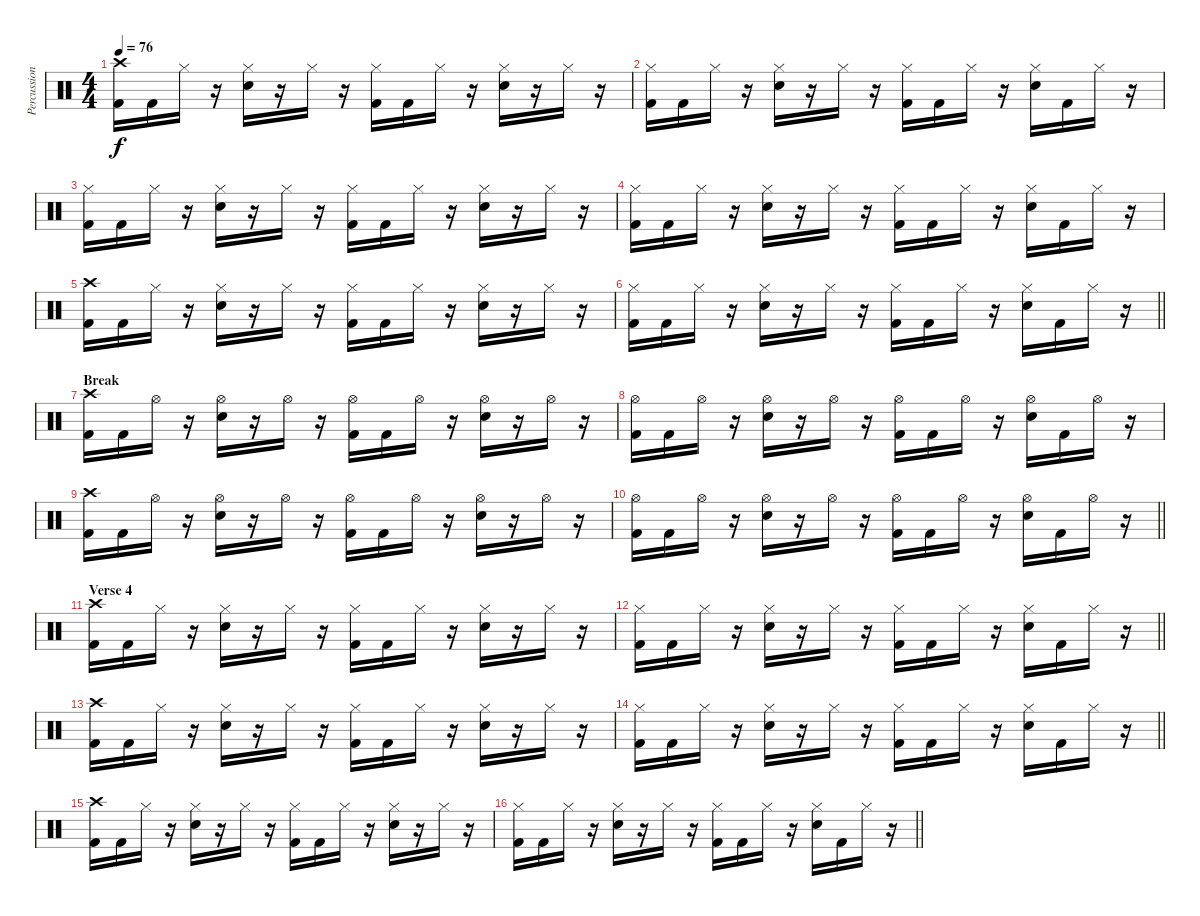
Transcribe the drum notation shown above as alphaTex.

\track ("Percussion" "Percussion") {instrument percussion}
\staff {score}
\articulation defaults
\ts (4 4)
\tempo 76
\clef neutral
\ks c
("Crash high (hit)" "Kick (hit) 2").16{dy f} "Kick (hit) 2".16 "Hi-Hat (closed)".16 r.16 ("Hi-Hat (closed)" "Electric Snare (hit)").16 r.16 "Hi-Hat (closed)".16 r.16 ("Hi-Hat (closed)" "Kick (hit) 2").16 "Kick (hit) 2".16 "Hi-Hat (closed)".16 r.16 ("Hi-Hat (closed)" "Electric Snare (hit)").16 r.16 "Hi-Hat (closed)".16 r.16 |
("Hi-Hat (closed)" "Kick (hit) 2").16 "Kick (hit) 2".16 "Hi-Hat (closed)".16 r.16 ("Hi-Hat (closed)" "Electric Snare (hit)").16 r.16 "Hi-Hat (closed)".16 r.16 ("Hi-Hat (closed)" "Kick (hit) 2").16 "Kick (hit) 2".16 "Hi-Hat (closed)".16 r.16 ("Hi-Hat (closed)" "Electric Snare (hit)").16 "Kick (hit) 2".16 "Hi-Hat (closed)".16 r.16 |
("Hi-Hat (closed)" "Kick (hit) 2").16 "Kick (hit) 2".16 "Hi-Hat (closed)".16 r.16 ("Hi-Hat (closed)" "Electric Snare (hit)").16 r.16 "Hi-Hat (closed)".16 r.16 ("Hi-Hat (closed)" "Kick (hit) 2").16 "Kick (hit) 2".16 "Hi-Hat (closed)".16 r.16 ("Hi-Hat (closed)" "Electric Snare (hit)").16 r.16 "Hi-Hat (closed)".16 r.16 |
("Hi-Hat (closed)" "Kick (hit) 2").16 "Kick (hit) 2".16 "Hi-Hat (closed)".16 r.16 ("Hi-Hat (closed)" "Electric Snare (hit)").16 r.16 "Hi-Hat (closed)".16 r.16 ("Hi-Hat (closed)" "Kick (hit) 2").16 "Kick (hit) 2".16 "Hi-Hat (closed)".16 r.16 ("Hi-Hat (closed)" "Electric Snare (hit)").16 "Kick (hit) 2".16 "Hi-Hat (closed)".16 r.16 |
("Crash high (hit)" "Kick (hit) 2").16 "Kick (hit) 2".16 "Hi-Hat (closed)".16 r.16 ("Hi-Hat (closed)" "Electric Snare (hit)").16 r.16 "Hi-Hat (closed)".16 r.16 ("Hi-Hat (closed)" "Kick (hit) 2").16 "Kick (hit) 2".16 "Hi-Hat (closed)".16 r.16 ("Hi-Hat (closed)" "Electric Snare (hit)").16 r.16 "Hi-Hat (closed)".16 r.16 |
\barLineRight lightlight
("Hi-Hat (closed)" "Kick (hit) 2").16 "Kick (hit) 2".16 "Hi-Hat (closed)".16 r.16 ("Hi-Hat (closed)" "Electric Snare (hit)").16 r.16 "Hi-Hat (closed)".16 r.16 ("Hi-Hat (closed)" "Kick (hit) 2").16 "Kick (hit) 2".16 "Hi-Hat (closed)".16 r.16 ("Hi-Hat (closed)" "Electric Snare (hit)").16 "Kick (hit) 2".16 "Hi-Hat (closed)".16 r.16 |
\section ("" "Break")
("Crash high (hit)" "Kick (hit) 2").16 "Kick (hit) 2".16 "Hi-Hat (open)".16 r.16 ("Hi-Hat (open)" "Electric Snare (hit)").16 r.16 "Hi-Hat (open)".16 r.16 ("Hi-Hat (open)" "Kick (hit) 2").16 "Kick (hit) 2".16 "Hi-Hat (open)".16 r.16 ("Hi-Hat (open)" "Electric Snare (hit)").16 r.16 "Hi-Hat (open)".16 r.16 |
("Hi-Hat (open)" "Kick (hit) 2").16 "Kick (hit) 2".16 "Hi-Hat (open)".16 r.16 ("Hi-Hat (open)" "Electric Snare (hit)").16 r.16 "Hi-Hat (open)".16 r.16 ("Hi-Hat (open)" "Kick (hit) 2").16 "Kick (hit) 2".16 "Hi-Hat (open)".16 r.16 ("Hi-Hat (open)" "Electric Snare (hit)").16 "Kick (hit) 2".16 "Hi-Hat (open)".16 r.16 |
("Crash high (hit)" "Kick (hit) 2").16 "Kick (hit) 2".16 "Hi-Hat (open)".16 r.16 ("Hi-Hat (open)" "Electric Snare (hit)").16 r.16 "Hi-Hat (open)".16 r.16 ("Hi-Hat (open)" "Kick (hit) 2").16 "Kick (hit) 2".16 "Hi-Hat (open)".16 r.16 ("Hi-Hat (open)" "Electric Snare (hit)").16 r.16 "Hi-Hat (open)".16 r.16 |
\barLineRight lightlight
("Hi-Hat (open)" "Kick (hit) 2").16 "Kick (hit) 2".16 "Hi-Hat (open)".16 r.16 ("Hi-Hat (open)" "Electric Snare (hit)").16 r.16 "Hi-Hat (open)".16 r.16 ("Hi-Hat (open)" "Kick (hit) 2").16 "Kick (hit) 2".16 "Hi-Hat (open)".16 r.16 ("Hi-Hat (open)" "Electric Snare (hit)").16 "Kick (hit) 2".16 "Hi-Hat (open)".16 r.16 |
\section ("" "Verse 4")
("Crash high (hit)" "Kick (hit) 2").16 "Kick (hit) 2".16 "Hi-Hat (closed)".16 r.16 ("Hi-Hat (closed)" "Electric Snare (hit)").16 r.16 "Hi-Hat (closed)".16 r.16 ("Hi-Hat (closed)" "Kick (hit) 2").16 "Kick (hit) 2".16 "Hi-Hat (closed)".16 r.16 ("Hi-Hat (closed)" "Electric Snare (hit)").16 r.16 "Hi-Hat (closed)".16 r.16 |
\barLineRight lightlight
("Hi-Hat (closed)" "Kick (hit) 2").16 "Kick (hit) 2".16 "Hi-Hat (closed)".16 r.16 ("Hi-Hat (closed)" "Electric Snare (hit)").16 r.16 "Hi-Hat (closed)".16 r.16 ("Hi-Hat (closed)" "Kick (hit) 2").16 "Kick (hit) 2".16 "Hi-Hat (closed)".16 r.16 ("Hi-Hat (closed)" "Electric Snare (hit)").16 "Kick (hit) 2".16 "Hi-Hat (closed)".16 r.16 |
("Crash high (hit)" "Kick (hit) 2").16 "Kick (hit) 2".16 "Hi-Hat (closed)".16 r.16 ("Hi-Hat (closed)" "Electric Snare (hit)").16 r.16 "Hi-Hat (closed)".16 r.16 ("Hi-Hat (closed)" "Kick (hit) 2").16 "Kick (hit) 2".16 "Hi-Hat (closed)".16 r.16 ("Hi-Hat (closed)" "Electric Snare (hit)").16 r.16 "Hi-Hat (closed)".16 r.16 |
\barLineRight lightlight
("Hi-Hat (closed)" "Kick (hit) 2").16 "Kick (hit) 2".16 "Hi-Hat (closed)".16 r.16 ("Hi-Hat (closed)" "Electric Snare (hit)").16 r.16 "Hi-Hat (closed)".16 r.16 ("Hi-Hat (closed)" "Kick (hit) 2").16 "Kick (hit) 2".16 "Hi-Hat (closed)".16 r.16 ("Hi-Hat (closed)" "Electric Snare (hit)").16 "Kick (hit) 2".16 "Hi-Hat (closed)".16 r.16 |
("Crash high (hit)" "Kick (hit) 2").16 "Kick (hit) 2".16 "Hi-Hat (closed)".16 r.16 ("Hi-Hat (closed)" "Electric Snare (hit)").16 r.16 "Hi-Hat (closed)".16 r.16 ("Hi-Hat (closed)" "Kick (hit) 2").16 "Kick (hit) 2".16 "Hi-Hat (closed)".16 r.16 ("Hi-Hat (closed)" "Electric Snare (hit)").16 r.16 "Hi-Hat (closed)".16 r.16 |
\barLineRight lightlight
("Hi-Hat (closed)" "Kick (hit) 2").16 "Kick (hit) 2".16 "Hi-Hat (closed)".16 r.16 ("Hi-Hat (closed)" "Electric Snare (hit)").16 r.16 "Hi-Hat (closed)".16 r.16 ("Hi-Hat (closed)" "Kick (hit) 2").16 "Kick (hit) 2".16 "Hi-Hat (closed)".16 r.16 ("Hi-Hat (closed)" "Electric Snare (hit)").16 "Kick (hit) 2".16 "Hi-Hat (closed)".16 r.16
